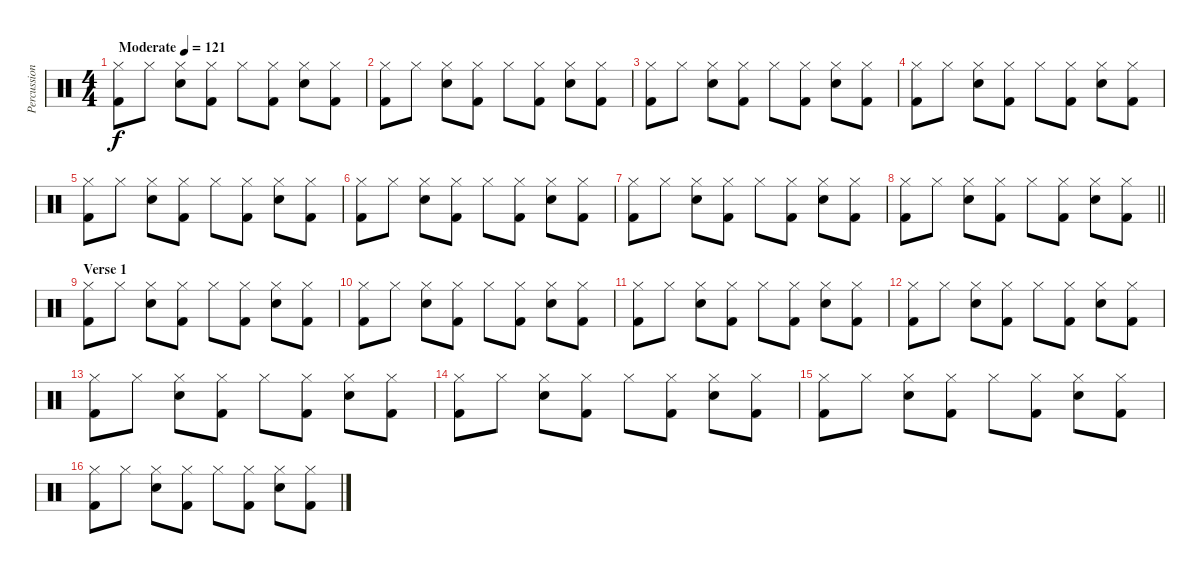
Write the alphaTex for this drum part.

\track ("Percussion" "Percussion") {instrument percussion}
\staff {score}
\articulation defaults
\ts (4 4)
\tempo (121 "Moderate")
\clef neutral
\ks c
("Hi-Hat (closed)" "Kick (hit) 2").8{dy f} "Hi-Hat (closed)".8 ("Hi-Hat (closed)" "Snare (hit) 2").8 ("Hi-Hat (closed)" "Kick (hit) 2").8 "Hi-Hat (closed)".8 ("Hi-Hat (closed)" "Kick (hit) 2").8 ("Hi-Hat (closed)" "Snare (hit) 2").8 ("Hi-Hat (closed)" "Kick (hit) 2").8 |
("Hi-Hat (closed)" "Kick (hit) 2").8 "Hi-Hat (closed)".8 ("Hi-Hat (closed)" "Snare (hit) 2").8 ("Hi-Hat (closed)" "Kick (hit) 2").8 "Hi-Hat (closed)".8 ("Hi-Hat (closed)" "Kick (hit) 2").8 ("Hi-Hat (closed)" "Snare (hit) 2").8 ("Hi-Hat (closed)" "Kick (hit) 2").8 |
("Hi-Hat (closed)" "Kick (hit) 2").8 "Hi-Hat (closed)".8 ("Hi-Hat (closed)" "Snare (hit) 2").8 ("Hi-Hat (closed)" "Kick (hit) 2").8 "Hi-Hat (closed)".8 ("Hi-Hat (closed)" "Kick (hit) 2").8 ("Hi-Hat (closed)" "Snare (hit) 2").8 ("Hi-Hat (closed)" "Kick (hit) 2").8 |
("Hi-Hat (closed)" "Kick (hit) 2").8 "Hi-Hat (closed)".8 ("Hi-Hat (closed)" "Snare (hit) 2").8 ("Hi-Hat (closed)" "Kick (hit) 2").8 "Hi-Hat (closed)".8 ("Hi-Hat (closed)" "Kick (hit) 2").8 ("Hi-Hat (closed)" "Snare (hit) 2").8 ("Hi-Hat (closed)" "Kick (hit) 2").8 |
("Hi-Hat (closed)" "Kick (hit) 2").8 "Hi-Hat (closed)".8 ("Hi-Hat (closed)" "Snare (hit) 2").8 ("Hi-Hat (closed)" "Kick (hit) 2").8 "Hi-Hat (closed)".8 ("Hi-Hat (closed)" "Kick (hit) 2").8 ("Hi-Hat (closed)" "Snare (hit) 2").8 ("Hi-Hat (closed)" "Kick (hit) 2").8 |
("Hi-Hat (closed)" "Kick (hit) 2").8 "Hi-Hat (closed)".8 ("Hi-Hat (closed)" "Snare (hit) 2").8 ("Hi-Hat (closed)" "Kick (hit) 2").8 "Hi-Hat (closed)".8 ("Hi-Hat (closed)" "Kick (hit) 2").8 ("Hi-Hat (closed)" "Snare (hit) 2").8 ("Hi-Hat (closed)" "Kick (hit) 2").8 |
("Hi-Hat (closed)" "Kick (hit) 2").8 "Hi-Hat (closed)".8 ("Hi-Hat (closed)" "Snare (hit) 2").8 ("Hi-Hat (closed)" "Kick (hit) 2").8 "Hi-Hat (closed)".8 ("Hi-Hat (closed)" "Kick (hit) 2").8 ("Hi-Hat (closed)" "Snare (hit) 2").8 ("Hi-Hat (closed)" "Kick (hit) 2").8 |
\barLineRight lightlight
("Hi-Hat (closed)" "Kick (hit) 2").8 "Hi-Hat (closed)".8 ("Hi-Hat (closed)" "Snare (hit) 2").8 ("Hi-Hat (closed)" "Kick (hit) 2").8 "Hi-Hat (closed)".8 ("Hi-Hat (closed)" "Kick (hit) 2").8 ("Hi-Hat (closed)" "Snare (hit) 2").8 ("Hi-Hat (closed)" "Kick (hit) 2").8 |
\section ("" "Verse 1")
("Hi-Hat (closed)" "Kick (hit) 2").8 "Hi-Hat (closed)".8 ("Hi-Hat (closed)" "Snare (hit) 2").8 ("Hi-Hat (closed)" "Kick (hit) 2").8 "Hi-Hat (closed)".8 ("Hi-Hat (closed)" "Kick (hit) 2").8 ("Hi-Hat (closed)" "Snare (hit) 2").8 ("Hi-Hat (closed)" "Kick (hit) 2").8 |
("Hi-Hat (closed)" "Kick (hit) 2").8 "Hi-Hat (closed)".8 ("Hi-Hat (closed)" "Snare (hit) 2").8 ("Hi-Hat (closed)" "Kick (hit) 2").8 "Hi-Hat (closed)".8 ("Hi-Hat (closed)" "Kick (hit) 2").8 ("Hi-Hat (closed)" "Snare (hit) 2").8 ("Hi-Hat (closed)" "Kick (hit) 2").8 |
("Hi-Hat (closed)" "Kick (hit) 2").8 "Hi-Hat (closed)".8 ("Hi-Hat (closed)" "Snare (hit) 2").8 ("Hi-Hat (closed)" "Kick (hit) 2").8 "Hi-Hat (closed)".8 ("Hi-Hat (closed)" "Kick (hit) 2").8 ("Hi-Hat (closed)" "Snare (hit) 2").8 ("Hi-Hat (closed)" "Kick (hit) 2").8 |
("Hi-Hat (closed)" "Kick (hit) 2").8 "Hi-Hat (closed)".8 ("Hi-Hat (closed)" "Snare (hit) 2").8 ("Hi-Hat (closed)" "Kick (hit) 2").8 "Hi-Hat (closed)".8 ("Hi-Hat (closed)" "Kick (hit) 2").8 ("Hi-Hat (closed)" "Snare (hit) 2").8 ("Hi-Hat (closed)" "Kick (hit) 2").8 |
("Hi-Hat (closed)" "Kick (hit) 2").8 "Hi-Hat (closed)".8 ("Hi-Hat (closed)" "Snare (hit) 2").8 ("Hi-Hat (closed)" "Kick (hit) 2").8 "Hi-Hat (closed)".8 ("Hi-Hat (closed)" "Kick (hit) 2").8 ("Hi-Hat (closed)" "Snare (hit) 2").8 ("Hi-Hat (closed)" "Kick (hit) 2").8 |
("Hi-Hat (closed)" "Kick (hit) 2").8 "Hi-Hat (closed)".8 ("Hi-Hat (closed)" "Snare (hit) 2").8 ("Hi-Hat (closed)" "Kick (hit) 2").8 "Hi-Hat (closed)".8 ("Hi-Hat (closed)" "Kick (hit) 2").8 ("Hi-Hat (closed)" "Snare (hit) 2").8 ("Hi-Hat (closed)" "Kick (hit) 2").8 |
("Hi-Hat (closed)" "Kick (hit) 2").8 "Hi-Hat (closed)".8 ("Hi-Hat (closed)" "Snare (hit) 2").8 ("Hi-Hat (closed)" "Kick (hit) 2").8 "Hi-Hat (closed)".8 ("Hi-Hat (closed)" "Kick (hit) 2").8 ("Hi-Hat (closed)" "Snare (hit) 2").8 ("Hi-Hat (closed)" "Kick (hit) 2").8 |
("Hi-Hat (closed)" "Kick (hit) 2").8 "Hi-Hat (closed)".8 ("Hi-Hat (closed)" "Snare (hit) 2").8 ("Hi-Hat (closed)" "Kick (hit) 2").8 "Hi-Hat (closed)".8 ("Hi-Hat (closed)" "Kick (hit) 2").8 ("Hi-Hat (closed)" "Snare (hit) 2").8 ("Hi-Hat (closed)" "Kick (hit) 2").8
